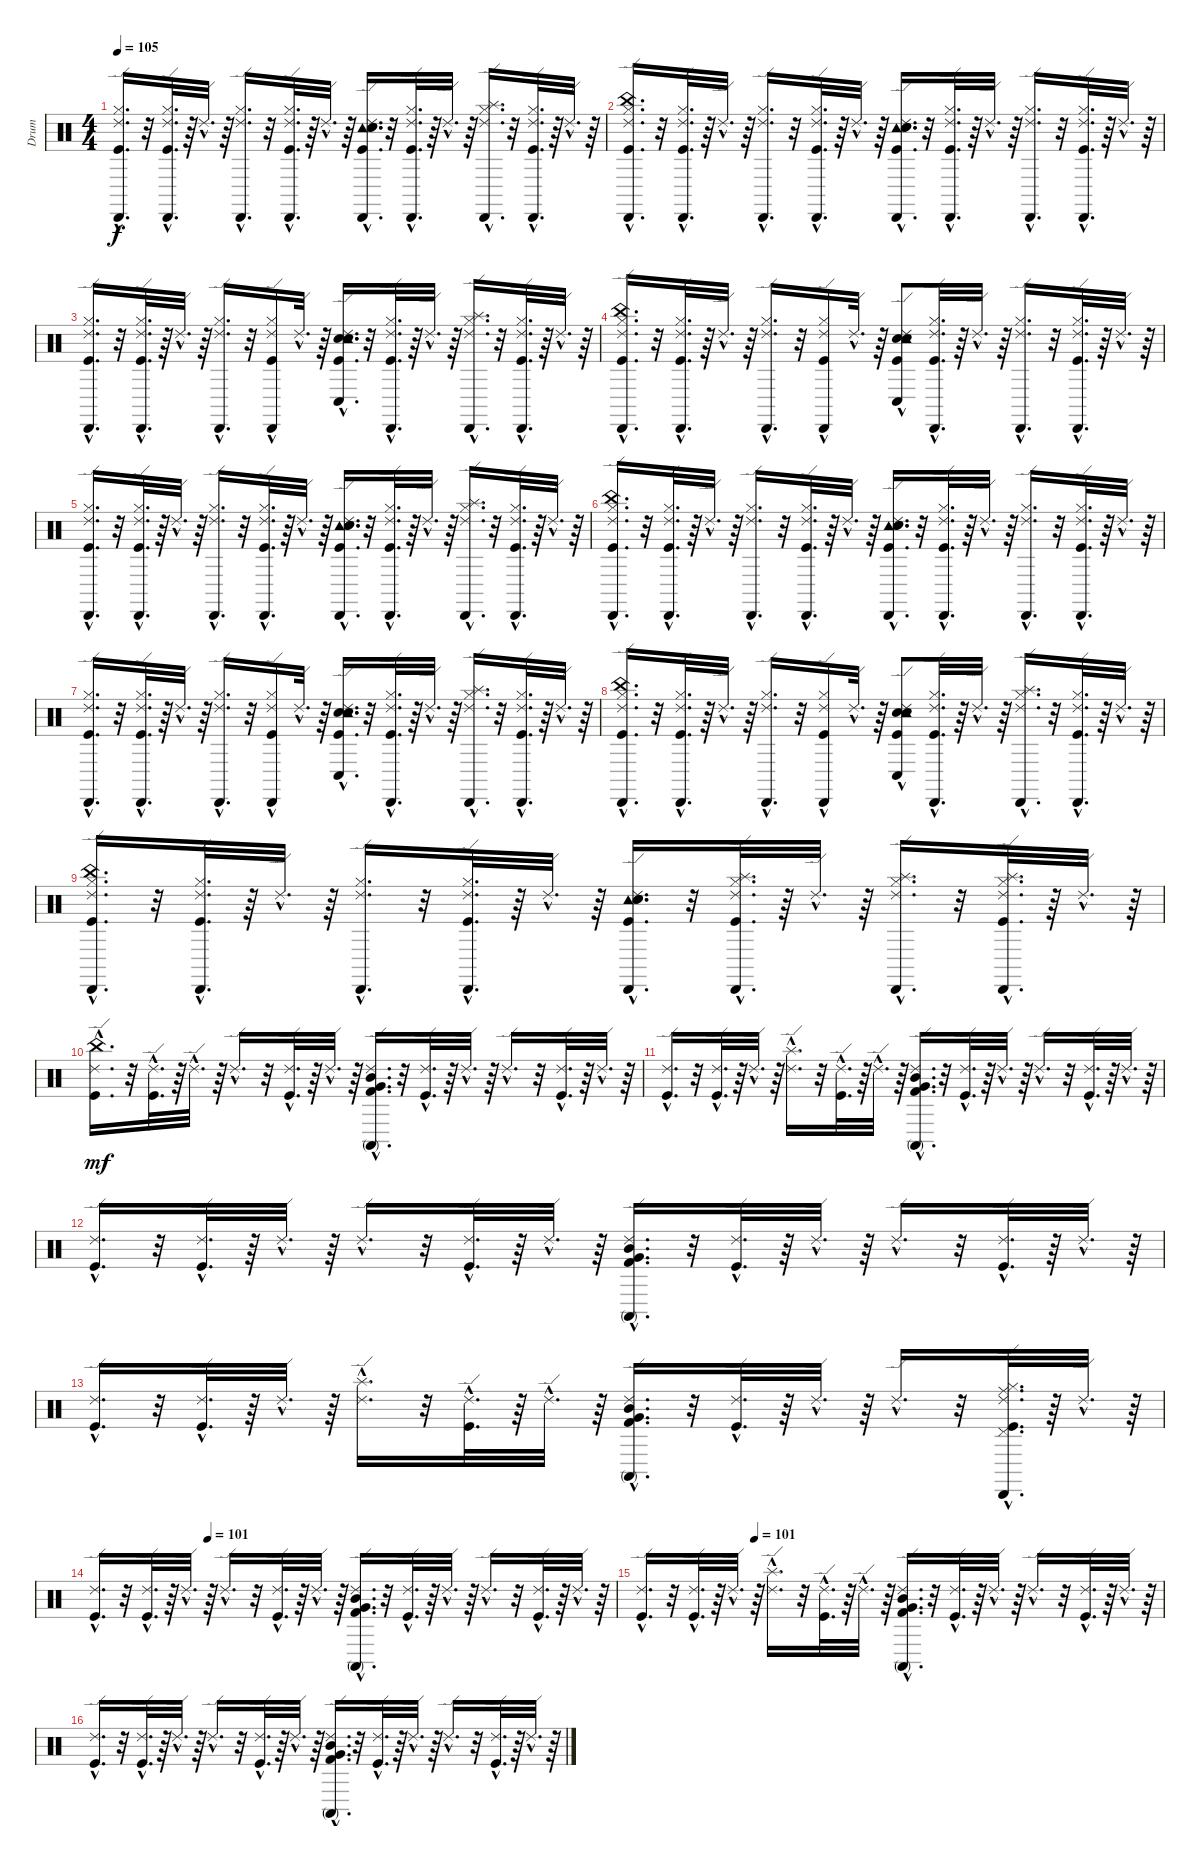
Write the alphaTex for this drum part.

\track ("Drum" "Drum") {instrument percussion}
\staff {score}
\articulation defaults
\ts (4 4)
\tempo 105
\clef neutral
\ks c
("Cabasa (hit)"{hac} "Kick (hit)"{hac} "Ride (edge) 2"{hac} "Hi-Hat (closed)"{hac}).16{d dy f} r.32 ("Cabasa (hit)"{hac} "Kick (hit)"{hac} "Ride (edge) 2"{hac} "Hi-Hat (closed)"{hac}).32{d} r.64 "Ride (edge) 2"{hac}.32{d} r.64 ("Cabasa (hit)"{hac} "Ride (edge) 2"{hac} "Hi-Hat (closed)"{hac}).16{d} r.32 ("Cabasa (hit)"{hac} "Kick (hit)"{hac} "Ride (edge) 2"{hac} "Hi-Hat (closed)"{hac}).32{d} r.64 "Ride (edge) 2"{hac}.32{d} r.64 ("Cabasa (hit)"{hac} "Tambourine (hit)"{hac} "Ride (edge) 2"{hac} "Electric Snare (hit)"{hac} "Snare (hit) 2"{hac} "Kick (hit)"{hac}).16{d} r.32 ("Cabasa (hit)"{hac} "Kick (hit)"{hac} "Ride (edge) 2"{hac} "Hi-Hat (closed)"{hac}).32{d} r.64 "Ride (edge) 2"{hac}.32{d} r.64 ("Cabasa (hit)"{hac} "Ride (edge) 2"{hac} "Hi-Hat (closed)"{hac} "Splash (hit)"{hac}).16{d} r.32 ("Cabasa (hit)"{hac} "Ride (edge) 2"{hac} "Kick (hit)"{hac} "Hi-Hat (closed)"{hac}).32{d} r.64 "Ride (edge) 2"{hac}.32{d} r.64 |
("Hi-Hat (closed)"{hac} "Cabasa (hit)"{hac} "China (hit)"{hac} "Kick (hit)"{hac} "Ride (edge) 2"{hac}).16{d} r.32 ("Hi-Hat (closed)"{hac} "Cabasa (hit)"{hac} "Kick (hit)"{hac} "Ride (edge) 2"{hac}).32{d} r.64 "Ride (edge) 2"{hac}.32{d} r.64 ("Hi-Hat (closed)"{hac} "Cabasa (hit)"{hac} "Ride (edge) 2"{hac}).16{d} r.32 ("Hi-Hat (closed)"{hac} "Cabasa (hit)"{hac} "Kick (hit)"{hac} "Ride (edge) 2"{hac}).32{d} r.64 "Ride (edge) 2"{hac}.32{d} r.64 ("Cabasa (hit)"{hac} "Tambourine (hit)"{hac} "Ride (edge) 2"{hac} "Electric Snare (hit)"{hac} "Snare (hit) 2"{hac} "Kick (hit)"{hac}).16{d} r.32 ("Hi-Hat (closed)"{hac} "Cabasa (hit)"{hac} "Kick (hit)"{hac} "Ride (edge) 2"{hac}).32{d} r.64 "Ride (edge) 2"{hac}.32{d} r.64 ("Hi-Hat (closed)"{hac} "Cabasa (hit)"{hac} "Ride (edge) 2"{hac}).16{d} r.32 ("Hi-Hat (closed)"{hac} "Cabasa (hit)"{hac} "Ride (edge) 2"{hac} "Kick (hit)"{hac}).32{d} r.64 "Ride (edge) 2"{hac}.32{d} r.64 |
("Hi-Hat (closed)"{hac} "Ride (edge) 2"{hac} "Kick (hit)"{hac} "Cabasa (hit)"{hac}).16{d} r.32 ("Hi-Hat (closed)"{hac} "Ride (edge) 2"{hac} "Kick (hit)"{hac} "Cabasa (hit)"{hac}).32{d} r.64 "Ride (edge) 2"{hac}.32{d} r.64 ("Hi-Hat (closed)"{hac} "Ride (edge) 2"{hac} "Cabasa (hit)"{hac}).16{d} r.32 ("Hi-Hat (closed)"{hac} "Ride (edge) 2"{hac} "Kick (hit)"{hac} "Cabasa (hit)"{hac}).16 "Ride (edge) 2"{hac}.32{d} r.64 ("Conga low (hit)"{hac} "Kick (hit)"{hac} "Snare (hit) 2"{hac} "Electric Snare (hit)"{hac} "Ride (edge) 2"{hac} "Tambourine (hit)"{hac}).16{d} r.32 ("Hi-Hat (closed)"{hac} "Ride (edge) 2"{hac} "Kick (hit)"{hac} "Cabasa (hit)"{hac}).32{d} r.64 "Ride (edge) 2"{hac}.32{d} r.64 ("Hi-Hat (closed)"{hac} "Ride (edge) 2"{hac} "Cabasa (hit)"{hac} "Splash (hit)"{hac}).16{d} r.32 ("Hi-Hat (closed)"{hac} "Kick (hit)"{hac} "Ride (edge) 2"{hac} "Cabasa (hit)"{hac}).32{d} r.64 "Ride (edge) 2"{hac}.32{d} r.64 |
("Hi-Hat (closed)"{hac} "Ride (edge) 2"{hac} "Kick (hit)"{hac} "China (hit)"{hac} "Cabasa (hit)"{hac}).16{d} r.32 ("Hi-Hat (closed)"{hac} "Ride (edge) 2"{hac} "Kick (hit)"{hac} "Cabasa (hit)"{hac}).32{d} r.64 "Ride (edge) 2"{hac}.32{d} r.64 ("Hi-Hat (closed)"{hac} "Ride (edge) 2"{hac} "Cabasa (hit)"{hac}).16{d} r.32 ("Hi-Hat (closed)"{hac} "Ride (edge) 2"{hac} "Kick (hit)"{hac} "Cabasa (hit)"{hac}).16 "Ride (edge) 2"{hac}.32{d} r.64 ("Conga low (hit)" "Kick (hit)"{hac} "Snare (hit) 2"{hac} "Electric Snare (hit)"{hac} "Ride (edge) 2"{hac} "Tambourine (hit)"{hac}).8 ("Hi-Hat (closed)"{hac} "Ride (edge) 2"{hac} "Kick (hit)"{hac} "Cabasa (hit)"{hac}).32{d} r.64 "Ride (edge) 2"{hac}.32{d} r.64 ("Hi-Hat (closed)"{hac} "Ride (edge) 2"{hac} "Cabasa (hit)"{hac}).16{d} r.32 ("Hi-Hat (closed)"{hac} "Kick (hit)"{hac} "Ride (edge) 2"{hac} "Cabasa (hit)"{hac}).32{d} r.64 "Ride (edge) 2"{hac}.32{d} r.64 |
("Cabasa (hit)"{hac} "Kick (hit)"{hac} "Ride (edge) 2"{hac} "Hi-Hat (closed)"{hac}).16{d} r.32 ("Cabasa (hit)"{hac} "Kick (hit)"{hac} "Ride (edge) 2"{hac} "Hi-Hat (closed)"{hac}).32{d} r.64 "Ride (edge) 2"{hac}.32{d} r.64 ("Cabasa (hit)"{hac} "Ride (edge) 2"{hac} "Hi-Hat (closed)"{hac}).16{d} r.32 ("Cabasa (hit)"{hac} "Kick (hit)"{hac} "Ride (edge) 2"{hac} "Hi-Hat (closed)"{hac}).32{d} r.64 "Ride (edge) 2"{hac}.32{d} r.64 ("Cabasa (hit)"{hac} "Tambourine (hit)"{hac} "Ride (edge) 2"{hac} "Electric Snare (hit)"{hac} "Snare (hit) 2"{hac} "Kick (hit)"{hac}).16{d} r.32 ("Cabasa (hit)"{hac} "Kick (hit)"{hac} "Ride (edge) 2"{hac} "Hi-Hat (closed)"{hac}).32{d} r.64 "Ride (edge) 2"{hac}.32{d} r.64 ("Cabasa (hit)"{hac} "Ride (edge) 2"{hac} "Hi-Hat (closed)"{hac} "Splash (hit)"{hac}).16{d} r.32 ("Cabasa (hit)"{hac} "Ride (edge) 2"{hac} "Kick (hit)"{hac} "Hi-Hat (closed)"{hac}).32{d} r.64 "Ride (edge) 2"{hac}.32{d} r.64 |
("Hi-Hat (closed)"{hac} "Cabasa (hit)"{hac} "China (hit)"{hac} "Kick (hit)"{hac} "Ride (edge) 2"{hac}).16{d} r.32 ("Hi-Hat (closed)"{hac} "Cabasa (hit)"{hac} "Kick (hit)"{hac} "Ride (edge) 2"{hac}).32{d} r.64 "Ride (edge) 2"{hac}.32{d} r.64 ("Hi-Hat (closed)"{hac} "Cabasa (hit)"{hac} "Ride (edge) 2"{hac}).16{d} r.32 ("Hi-Hat (closed)"{hac} "Cabasa (hit)"{hac} "Kick (hit)"{hac} "Ride (edge) 2"{hac}).32{d} r.64 "Ride (edge) 2"{hac}.32{d} r.64 ("Cabasa (hit)"{hac} "Tambourine (hit)"{hac} "Ride (edge) 2"{hac} "Electric Snare (hit)"{hac} "Snare (hit) 2"{hac} "Kick (hit)"{hac}).16{d} r.32 ("Hi-Hat (closed)"{hac} "Cabasa (hit)"{hac} "Kick (hit)"{hac} "Ride (edge) 2"{hac}).32{d} r.64 "Ride (edge) 2"{hac}.32{d} r.64 ("Hi-Hat (closed)"{hac} "Cabasa (hit)"{hac} "Ride (edge) 2"{hac}).16{d} r.32 ("Hi-Hat (closed)"{hac} "Cabasa (hit)"{hac} "Ride (edge) 2"{hac} "Kick (hit)"{hac}).32{d} r.64 "Ride (edge) 2"{hac}.32{d} r.64 |
("Hi-Hat (closed)"{hac} "Ride (edge) 2"{hac} "Kick (hit)"{hac} "Cabasa (hit)"{hac}).16{d} r.32 ("Hi-Hat (closed)"{hac} "Ride (edge) 2"{hac} "Kick (hit)"{hac} "Cabasa (hit)"{hac}).32{d} r.64 "Ride (edge) 2"{hac}.32{d} r.64 ("Hi-Hat (closed)"{hac} "Ride (edge) 2"{hac} "Cabasa (hit)"{hac}).16{d} r.32 ("Hi-Hat (closed)"{hac} "Ride (edge) 2"{hac} "Kick (hit)"{hac} "Cabasa (hit)"{hac}).16 "Ride (edge) 2"{hac}.32{d} r.64 ("Conga low (hit)"{hac} "Kick (hit)"{hac} "Snare (hit) 2"{hac} "Electric Snare (hit)"{hac} "Ride (edge) 2"{hac} "Tambourine (hit)"{hac}).16{d} r.32 ("Hi-Hat (closed)"{hac} "Ride (edge) 2"{hac} "Kick (hit)"{hac} "Cabasa (hit)"{hac}).32{d} r.64 "Ride (edge) 2"{hac}.32{d} r.64 ("Hi-Hat (closed)"{hac} "Ride (edge) 2"{hac} "Cabasa (hit)"{hac} "Splash (hit)"{hac}).16{d} r.32 ("Hi-Hat (closed)"{hac} "Kick (hit)"{hac} "Ride (edge) 2"{hac} "Cabasa (hit)"{hac}).32{d} r.64 "Ride (edge) 2"{hac}.32{d} r.64 |
("Hi-Hat (closed)"{hac} "Ride (edge) 2"{hac} "Kick (hit)"{hac} "Cabasa (hit)"{hac} "China (hit)"{hac}).16{d} r.32 ("Hi-Hat (closed)"{hac} "Ride (edge) 2"{hac} "Kick (hit)"{hac} "Cabasa (hit)"{hac}).32{d} r.64 "Ride (edge) 2"{hac}.32{d} r.64 ("Hi-Hat (closed)"{hac} "Ride (edge) 2"{hac} "Cabasa (hit)"{hac}).16{d} r.32 ("Hi-Hat (closed)"{hac} "Ride (edge) 2"{hac} "Kick (hit)"{hac} "Cabasa (hit)"{hac}).16 "Ride (edge) 2"{hac}.32{d} r.64 ("Conga low (hit)" "Kick (hit)"{hac} "Snare (hit) 2"{hac} "Electric Snare (hit)"{hac} "Ride (edge) 2"{hac} "Tambourine (hit)"{hac}).8 ("Hi-Hat (closed)"{hac} "Ride (edge) 2"{hac} "Kick (hit)"{hac} "Cabasa (hit)"{hac}).32{d} r.64 "Ride (edge) 2"{hac}.32{d} r.64 ("Hi-Hat (closed)"{hac} "Ride (edge) 2"{hac} "Cabasa (hit)"{hac} "Splash (hit)"{hac}).16{d} r.32 ("Hi-Hat (closed)"{hac} "Kick (hit)"{hac} "Ride (edge) 2"{hac} "Cabasa (hit)"{hac}).32{d} r.64 "Ride (edge) 2"{hac}.32{d} r.64 |
("Cabasa (hit)"{hac} "China (hit)"{hac} "Kick (hit)"{hac} "Ride (edge) 2"{hac} "Hi-Hat (closed)"{hac}).16{d} r.32 ("Cabasa (hit)"{hac} "Kick (hit)"{hac} "Ride (edge) 2"{hac} "Hi-Hat (closed)"{hac}).32{d} r.64 "Ride (edge) 2"{hac}.32{d} r.64 ("Cabasa (hit)"{hac} "Ride (edge) 2"{hac} "Hi-Hat (closed)"{hac}).16{d} r.32 ("Cabasa (hit)"{hac} "Kick (hit)"{hac} "Ride (edge) 2"{hac} "Hi-Hat (closed)"{hac}).32{d} r.64 "Ride (edge) 2"{hac}.32{d} r.64 ("Cabasa (hit)"{hac} "Tambourine (hit)"{hac} "Ride (edge) 2"{hac} "Electric Snare (hit)"{hac} "Snare (hit) 2"{hac} "Kick (hit)"{hac}).16{d} r.32 ("Cabasa (hit)"{hac} "Kick (hit)"{hac} "Ride (edge) 2"{hac} "Hi-Hat (closed)"{hac} "Splash (hit)"{hac}).32{d} r.64 "Ride (edge) 2"{hac}.32{d} r.64 ("Cabasa (hit)"{hac} "Ride (edge) 2"{hac} "Hi-Hat (closed)"{hac} "Splash (hit)"{hac}).16{d} r.32 ("Cabasa (hit)"{hac} "Ride (edge) 2"{hac} "Kick (hit)"{hac} "Hi-Hat (closed)"{hac} "Splash (hit)"{hac}).32{d} r.64 "Ride (edge) 2"{hac}.32{d} r.64 |
("Kick (hit)"{hac} "Ride (edge) 2"{hac} "China (hit)"{hac}).16{d dy mf} r.32 ("Kick (hit)"{hac} "Ride (edge) 2"{hac}).32{d} r.64 "Ride (edge) 2"{hac}.32{d} r.64 "Ride (edge) 2"{hac}.16{d} r.32 ("Ride (edge) 2"{hac} "Kick (hit)"{hac}).32{d} r.64 "Ride (edge) 2"{hac}.32{d} r.64 ("Conga high (mute)"{hac} "Mid Tom (hit)"{hac} "Very Low Tom (hit)"{hac} "Kick (hit) 2"{hac} "Ride (edge) 2"{hac}).16{d} r.32 ("Kick (hit)"{hac} "Ride (edge) 2"{hac}).32{d} r.64 "Ride (edge) 2"{hac}.32{d} r.64 "Ride (edge) 2"{hac}.16{d} r.32 ("Kick (hit)"{hac} "Ride (edge) 2"{hac}).32{d} r.64 "Ride (edge) 2"{hac}.32{d} r.64 |
("Ride (edge) 2"{hac} "Kick (hit)"{hac}).16{d} r.32 ("Ride (edge) 2"{hac} "Kick (hit)"{hac}).32{d} r.64 "Ride (edge) 2"{hac}.32{d} r.64 ("Splash (hit)"{hac} "Ride (edge) 2"{hac}).16{d} r.32 ("Kick (hit)"{hac} "Ride (edge) 2"{hac}).32{d} r.64 "Ride (edge) 2"{hac}.32{d} r.64 ("Ride (edge) 2"{hac} "Kick (hit) 2"{hac} "Very Low Tom (hit)"{hac} "Mid Tom (hit)"{hac} "Conga high (mute)"{hac}).16{d} r.32 ("Ride (edge) 2"{hac} "Kick (hit)"{hac}).32{d} r.64 "Ride (edge) 2"{hac}.32{d} r.64 "Ride (edge) 2"{hac}.16{d} r.32 ("Ride (edge) 2"{hac} "Kick (hit)"{hac}).32{d} r.64 "Ride (edge) 2"{hac}.32{d} r.64 |
("Ride (edge) 2"{hac} "Kick (hit)"{hac}).16{d} r.32 ("Ride (edge) 2"{hac} "Kick (hit)"{hac}).32{d} r.64 "Ride (edge) 2"{hac}.32{d} r.64 "Ride (edge) 2"{hac}.16{d} r.32 ("Kick (hit)"{hac} "Ride (edge) 2"{hac}).32{d} r.64 "Ride (edge) 2"{hac}.32{d} r.64 ("Ride (edge) 2"{hac} "Kick (hit) 2"{hac} "Very Low Tom (hit)"{hac} "Mid Tom (hit)"{hac} "Conga high (mute)"{hac}).16{d} r.32 ("Ride (edge) 2"{hac} "Kick (hit)"{hac}).32{d} r.64 "Ride (edge) 2"{hac}.32{d} r.64 "Ride (edge) 2"{hac}.16{d} r.32 ("Ride (edge) 2"{hac} "Kick (hit)"{hac}).32{d} r.64 "Ride (edge) 2"{hac}.32{d} r.64 |
("Ride (edge) 2"{hac} "Kick (hit)"{hac}).16{d} r.32 ("Ride (edge) 2"{hac} "Kick (hit)"{hac}).32{d} r.64 "Ride (edge) 2"{hac}.32{d} r.64 ("Ride (edge) 2"{hac} "Splash (hit)"{hac}).16{d} r.32 ("Kick (hit)"{hac} "Ride (edge) 2"{hac}).32{d} r.64 "Ride (edge) 2"{hac}.32{d} r.64 ("Ride (edge) 2"{hac} "Kick (hit) 2"{hac} "Very Low Tom (hit)"{hac} "Mid Tom (hit)"{hac} "Conga high (mute)"{hac}).16{d} r.32 ("Ride (edge) 2"{hac} "Kick (hit)"{hac}).32{d} r.64 "Ride (edge) 2"{hac}.32{d} r.64 "Ride (edge) 2"{hac}.16{d} r.32 ("Cabasa (hit)"{hac} "Hi-Hat (closed)"{hac} "Pedal Hi-Hat (hit)"{hac} "Ride (middle)"{hac} "Ride (edge) 2"{hac} "Kick (hit)"{hac}).32{d} r.64 "Ride (edge) 2"{hac}.32{d} r.64 |
\tempo (101 0.21875)
("Kick (hit)"{hac} "Ride (edge) 2"{hac}).16{d} r.32 ("Kick (hit)"{hac} "Ride (edge) 2"{hac}).32{d} r.64 "Ride (edge) 2"{hac}.32{d} r.64 "Ride (edge) 2"{hac}.16{d} r.32 ("Ride (edge) 2"{hac} "Kick (hit)"{hac}).32{d} r.64 "Ride (edge) 2"{hac}.32{d} r.64 ("Conga high (mute)"{hac} "Mid Tom (hit)"{hac} "Very Low Tom (hit)"{hac} "Kick (hit) 2"{hac} "Ride (edge) 2"{hac}).16{d} r.32 ("Kick (hit)"{hac} "Ride (edge) 2"{hac}).32{d} r.64 "Ride (edge) 2"{hac}.32{d} r.64 "Ride (edge) 2"{hac}.16{d} r.32 ("Kick (hit)"{hac} "Ride (edge) 2"{hac}).32{d} r.64 "Ride (edge) 2"{hac}.32{d} r.64 |
\tempo (101 0.21875)
("Ride (edge) 2"{hac} "Kick (hit)"{hac}).16{d} r.32 ("Ride (edge) 2"{hac} "Kick (hit)"{hac}).32{d} r.64 "Ride (edge) 2"{hac}.32{d} r.64 ("Splash (hit)"{hac} "Ride (edge) 2"{hac}).16{d} r.32 ("Kick (hit)"{hac} "Ride (edge) 2"{hac}).32{d} r.64 "Ride (edge) 2"{hac}.32{d} r.64 ("Ride (edge) 2"{hac} "Kick (hit) 2"{hac} "Very Low Tom (hit)"{hac} "Mid Tom (hit)"{hac} "Conga high (mute)"{hac}).16{d} r.32 ("Ride (edge) 2"{hac} "Kick (hit)"{hac}).32{d} r.64 "Ride (edge) 2"{hac}.32{d} r.64 "Ride (edge) 2"{hac}.16{d} r.32 ("Ride (edge) 2"{hac} "Kick (hit)"{hac}).32{d} r.64 "Ride (edge) 2"{hac}.32{d} r.64 |
("Ride (edge) 2"{hac} "Kick (hit)"{hac}).16{d} r.32 ("Ride (edge) 2"{hac} "Kick (hit)"{hac}).32{d} r.64 "Ride (edge) 2"{hac}.32{d} r.64 "Ride (edge) 2"{hac}.16{d} r.32 ("Kick (hit)"{hac} "Ride (edge) 2"{hac}).32{d} r.64 "Ride (edge) 2"{hac}.32{d} r.64 ("Ride (edge) 2"{hac} "Kick (hit) 2"{hac} "Very Low Tom (hit)"{hac} "Mid Tom (hit)"{hac} "Conga high (mute)"{hac}).16{d} r.32 ("Ride (edge) 2"{hac} "Kick (hit)"{hac}).32{d} r.64 "Ride (edge) 2"{hac}.32{d} r.64 "Ride (edge) 2"{hac}.16{d} r.32 ("Ride (edge) 2"{hac} "Kick (hit)"{hac}).32{d} r.64 "Ride (edge) 2"{hac}.32{d} r.64
